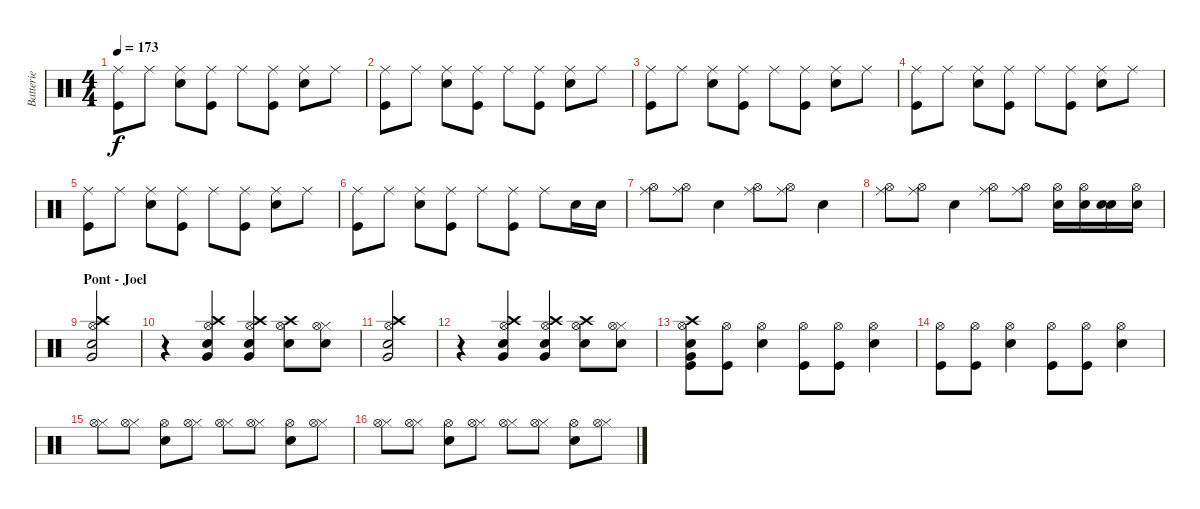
\track ("Batterie" "Batterie") {instrument percussion}
\staff {score}
\articulation defaults
\ts (4 4)
\tempo 173
\clef neutral
\ks c
("Ride (middle)" "Kick (hit)").8{dy f} "Ride (middle)".8 ("Ride (middle)" "Electric Snare (hit)").8 ("Ride (middle)" "Kick (hit)").8 "Ride (middle)".8 ("Ride (middle)" "Kick (hit)").8 ("Ride (middle)" "Electric Snare (hit)").8 "Ride (middle)".8 |
("Ride (middle)" "Kick (hit)").8 "Ride (middle)".8 ("Ride (middle)" "Electric Snare (hit)").8 ("Ride (middle)" "Kick (hit)").8 "Ride (middle)".8 ("Ride (middle)" "Kick (hit)").8 ("Ride (middle)" "Electric Snare (hit)").8 "Ride (middle)".8 |
("Ride (middle)" "Kick (hit)").8 "Ride (middle)".8 ("Ride (middle)" "Electric Snare (hit)").8 ("Ride (middle)" "Kick (hit)").8 "Ride (middle)".8 ("Ride (middle)" "Kick (hit)").8 ("Ride (middle)" "Electric Snare (hit)").8 "Ride (middle)".8 |
("Ride (middle)" "Kick (hit)").8 "Ride (middle)".8 ("Ride (middle)" "Electric Snare (hit)").8 ("Ride (middle)" "Kick (hit)").8 "Ride (middle)".8 ("Ride (middle)" "Kick (hit)").8 ("Ride (middle)" "Electric Snare (hit)").8 "Ride (middle)".8 |
("Ride (middle)" "Kick (hit)").8 "Ride (middle)".8 ("Ride (middle)" "Electric Snare (hit)").8 ("Ride (middle)" "Kick (hit)").8 "Ride (middle)".8 ("Ride (middle)" "Kick (hit)").8 ("Ride (middle)" "Electric Snare (hit)").8 "Ride (middle)".8 |
("Ride (middle)" "Kick (hit)").8 "Ride (middle)".8 ("Ride (middle)" "Electric Snare (hit)").8 ("Ride (middle)" "Kick (hit)").8 "Ride (middle)".8 ("Ride (middle)" "Kick (hit)").8 "Ride (middle)".8 "Electric Snare (hit)".16 "Electric Snare (hit)".16 |
("Ride (middle)" "Hi-Hat (open)").8 ("Ride (middle)" "Hi-Hat (open)").8 "Electric Snare (hit)".4 ("Ride (middle)" "Hi-Hat (open)").8 ("Ride (middle)" "Hi-Hat (open)").8 "Electric Snare (hit)".4 |
("Ride (middle)" "Hi-Hat (open)").8 ("Ride (middle)" "Hi-Hat (open)").8 "Electric Snare (hit)".4 ("Ride (middle)" "Hi-Hat (open)").8 ("Ride (middle)" "Hi-Hat (open)").8 ("Electric Snare (hit)" "Hi-Hat (open)").16 ("Electric Snare (hit)" "Hi-Hat (open)").16 ("Electric Snare (hit)" "Snare (hit)").16 ("Electric Snare (hit)" "Hi-Hat (open)").16 |
\section ("" "Pont - Joel")
("Crash high (hit)" "Hi-Hat (open)" "Electric Snare (hit)" "Very Low Tom (hit)").2 |
r.4 ("Crash high (hit)" "Hi-Hat (open)" "Electric Snare (hit)" "Very Low Tom (hit)").4 ("Crash high (hit)" "Hi-Hat (open)" "Electric Snare (hit)" "Very Low Tom (hit)").4 ("Electric Snare (hit)" "Hi-Hat (open)" "Crash high (hit)").8 ("Hi-Hat (closed)" "Hi-Hat (open)" "Electric Snare (hit)").8 |
("Electric Snare (hit)" "Hi-Hat (open)" "Very Low Tom (hit)" "Crash high (hit)").2 |
r.4 ("Crash high (hit)" "Hi-Hat (open)" "Electric Snare (hit)" "Very Low Tom (hit)").4 ("Crash high (hit)" "Hi-Hat (open)" "Electric Snare (hit)" "Very Low Tom (hit)").4 ("Electric Snare (hit)" "Crash high (hit)" "Hi-Hat (open)").8 ("Hi-Hat (closed)" "Hi-Hat (open)" "Electric Snare (hit)").8 |
("Electric Snare (hit)" "Hi-Hat (open)" "Very Low Tom (hit)" "Crash high (hit)" "Kick (hit)").8 ("Kick (hit)" "Hi-Hat (open)").8 ("Electric Snare (hit)" "Hi-Hat (open)").4 ("Kick (hit)" "Hi-Hat (open)").8 ("Kick (hit)" "Hi-Hat (open)").8 ("Electric Snare (hit)" "Hi-Hat (open)").4 |
("Kick (hit)" "Hi-Hat (open)").8 ("Kick (hit)" "Hi-Hat (open)").8 ("Electric Snare (hit)" "Hi-Hat (open)").4 ("Kick (hit)" "Hi-Hat (open)").8 ("Kick (hit)" "Hi-Hat (open)").8 ("Electric Snare (hit)" "Hi-Hat (open)").4 |
("Hi-Hat (closed)" "Hi-Hat (open)").8 ("Hi-Hat (closed)" "Hi-Hat (open)").8 ("Electric Snare (hit)" "Hi-Hat (open)").8 ("Hi-Hat (closed)" "Hi-Hat (open)").8 ("Hi-Hat (closed)" "Hi-Hat (open)").8 ("Hi-Hat (closed)" "Hi-Hat (open)").8 ("Electric Snare (hit)" "Hi-Hat (open)").8 ("Hi-Hat (closed)" "Hi-Hat (open)").8 |
("Hi-Hat (closed)" "Hi-Hat (open)").8 ("Hi-Hat (closed)" "Hi-Hat (open)").8 ("Electric Snare (hit)" "Hi-Hat (open)").8 ("Hi-Hat (closed)" "Hi-Hat (open)").8 ("Hi-Hat (closed)" "Hi-Hat (open)").8 ("Hi-Hat (closed)" "Hi-Hat (open)").8 ("Electric Snare (hit)" "Hi-Hat (open)").8 ("Hi-Hat (closed)" "Hi-Hat (open)").8
